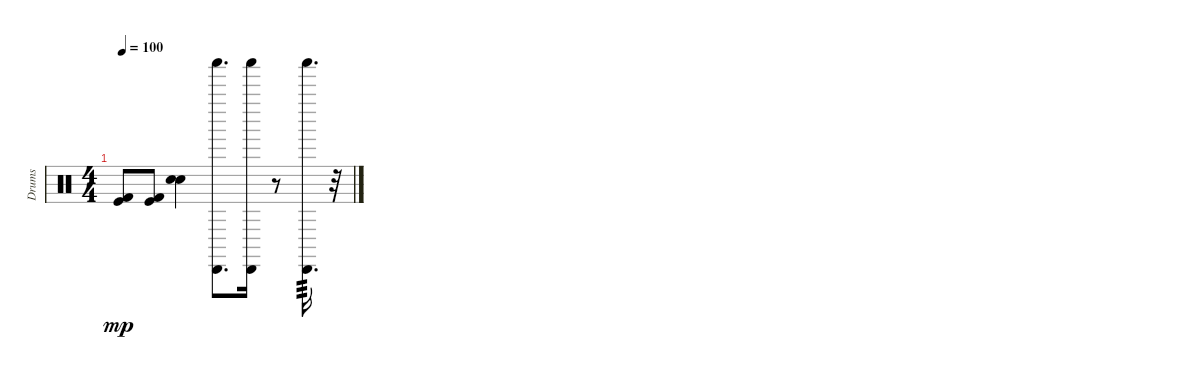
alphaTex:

\track ("Drums" "Drums") {instrument percussion}
\staff {score}
\articulation defaults
\ts (4 4)
\tempo 100
\clef neutral
\ks c
("Kick (hit)" "Kick (hit) 2").8{dy mp} ("Kick (hit)" "Kick (hit) 2").8 ("Snare (hit) 2" "Electric Snare (hit)").4 ("Shaker (hit)" "Cabasa (hit)").8{d} ("Shaker (hit)" "Cabasa (hit)").16 r.8 ("Shaker (hit)" "Cabasa (hit)").16{d tp 3} r.32
